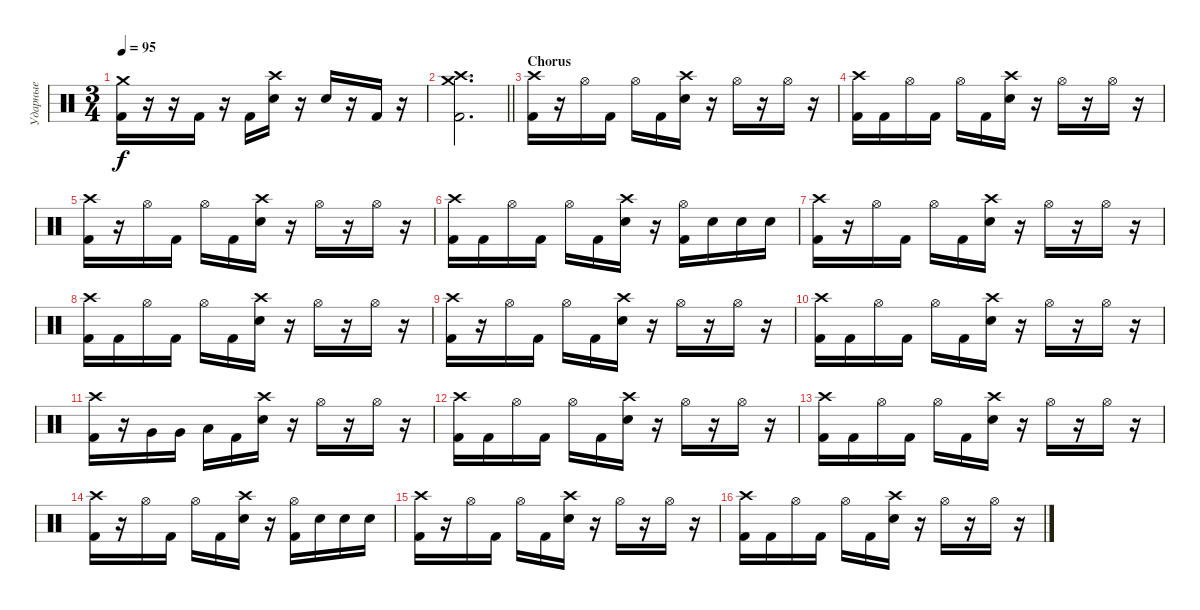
\track ("Ударные" "Ударные") {instrument percussion}
\staff {score}
\articulation defaults
\ts (3 4)
\tempo 95
\clef neutral
\ks c
("Crash medium (hit)" "Kick (hit) 2").16{dy f} r.16 r.16 "Kick (hit) 2".16 r.16 "Kick (hit) 2".16 ("Crash high (hit)" "Electric Snare (hit)").16 r.16 "Electric Snare (hit)".16 r.16 "Kick (hit) 2".16 r.16 |
\barLineRight lightlight
("Crash medium (hit)" "Crash high (hit)" "Kick (hit) 2").2{d} |
\section ("" "Chorus")
("Crash high (hit)" "Kick (hit) 2").16 r.16 "Hi-Hat (open)".16 "Kick (hit) 2".16 "Hi-Hat (open)".16 "Kick (hit) 2".16 ("Crash high (hit)" "Electric Snare (hit)").16 r.16 "Hi-Hat (open)".16 r.16 "Hi-Hat (open)".16 r.16 |
("Crash high (hit)" "Kick (hit) 2").16 "Kick (hit) 2".16 "Hi-Hat (open)".16 "Kick (hit) 2".16 "Hi-Hat (open)".16 "Kick (hit) 2".16 ("Crash high (hit)" "Electric Snare (hit)").16 r.16 "Hi-Hat (open)".16 r.16 "Hi-Hat (open)".16 r.16 |
("Crash high (hit)" "Kick (hit) 2").16 r.16 "Hi-Hat (open)".16 "Kick (hit) 2".16 "Hi-Hat (open)".16 "Kick (hit) 2".16 ("Crash high (hit)" "Electric Snare (hit)").16 r.16 "Hi-Hat (open)".16 r.16 "Hi-Hat (open)".16 r.16 |
("Crash high (hit)" "Kick (hit) 2").16 "Kick (hit) 2".16 "Hi-Hat (open)".16 "Kick (hit) 2".16 "Hi-Hat (open)".16 "Kick (hit) 2".16 ("Crash high (hit)" "Electric Snare (hit)").16 r.16 ("Hi-Hat (open)" "Kick (hit) 2").16 "Electric Snare (hit)".16 "Electric Snare (hit)".16 "Electric Snare (hit)".16 |
("Crash high (hit)" "Kick (hit) 2").16 r.16 "Hi-Hat (open)".16 "Kick (hit) 2".16 "Hi-Hat (open)".16 "Kick (hit) 2".16 ("Crash high (hit)" "Electric Snare (hit)").16 r.16 "Hi-Hat (open)".16 r.16 "Hi-Hat (open)".16 r.16 |
("Crash high (hit)" "Kick (hit) 2").16 "Kick (hit) 2".16 "Hi-Hat (open)".16 "Kick (hit) 2".16 "Hi-Hat (open)".16 "Kick (hit) 2".16 ("Crash high (hit)" "Electric Snare (hit)").16 r.16 "Hi-Hat (open)".16 r.16 "Hi-Hat (open)".16 r.16 |
("Crash high (hit)" "Kick (hit) 2").16 r.16 "Hi-Hat (open)".16 "Kick (hit) 2".16 "Hi-Hat (open)".16 "Kick (hit) 2".16 ("Crash high (hit)" "Electric Snare (hit)").16 r.16 "Hi-Hat (open)".16 r.16 "Hi-Hat (open)".16 r.16 |
("Crash high (hit)" "Kick (hit) 2").16 "Kick (hit) 2".16 "Hi-Hat (open)".16 "Kick (hit) 2".16 "Hi-Hat (open)".16 "Kick (hit) 2".16 ("Crash high (hit)" "Electric Snare (hit)").16 r.16 "Hi-Hat (open)".16 r.16 "Hi-Hat (open)".16 r.16 |
("Crash high (hit)" "Kick (hit) 2").16 r.16 "Very Low Tom (hit)".16 "Very Low Tom (hit)".16 "Low Floor Tom (hit)".16 "Kick (hit) 2".16 ("Crash high (hit)" "Electric Snare (hit)").16 r.16 "Hi-Hat (open)".16 r.16 "Hi-Hat (open)".16 r.16 |
("Crash high (hit)" "Kick (hit) 2").16 "Kick (hit) 2".16 "Hi-Hat (open)".16 "Kick (hit) 2".16 "Hi-Hat (open)".16 "Kick (hit) 2".16 ("Crash high (hit)" "Electric Snare (hit)").16 r.16 "Hi-Hat (open)".16 r.16 "Hi-Hat (open)".16 r.16 |
("Crash high (hit)" "Kick (hit) 2").16 "Kick (hit) 2".16 "Hi-Hat (open)".16 "Kick (hit) 2".16 "Hi-Hat (open)".16 "Kick (hit) 2".16 ("Crash high (hit)" "Electric Snare (hit)").16 r.16 "Hi-Hat (open)".16 r.16 "Hi-Hat (open)".16 r.16 |
("Crash high (hit)" "Kick (hit) 2").16 r.16 "Hi-Hat (open)".16 "Kick (hit) 2".16 "Hi-Hat (open)".16 "Kick (hit) 2".16 ("Crash high (hit)" "Electric Snare (hit)").16 r.16 ("Hi-Hat (open)" "Kick (hit) 2").16 "Electric Snare (hit)".16 "Electric Snare (hit)".16 "Electric Snare (hit)".16 |
("Crash high (hit)" "Kick (hit) 2").16 r.16 "Hi-Hat (open)".16 "Kick (hit) 2".16 "Hi-Hat (open)".16 "Kick (hit) 2".16 ("Crash high (hit)" "Electric Snare (hit)").16 r.16 "Hi-Hat (open)".16 r.16 "Hi-Hat (open)".16 r.16 |
("Crash high (hit)" "Kick (hit) 2").16 "Kick (hit) 2".16 "Hi-Hat (open)".16 "Kick (hit) 2".16 "Hi-Hat (open)".16 "Kick (hit) 2".16 ("Crash high (hit)" "Electric Snare (hit)").16 r.16 "Hi-Hat (open)".16 r.16 "Hi-Hat (open)".16 r.16
